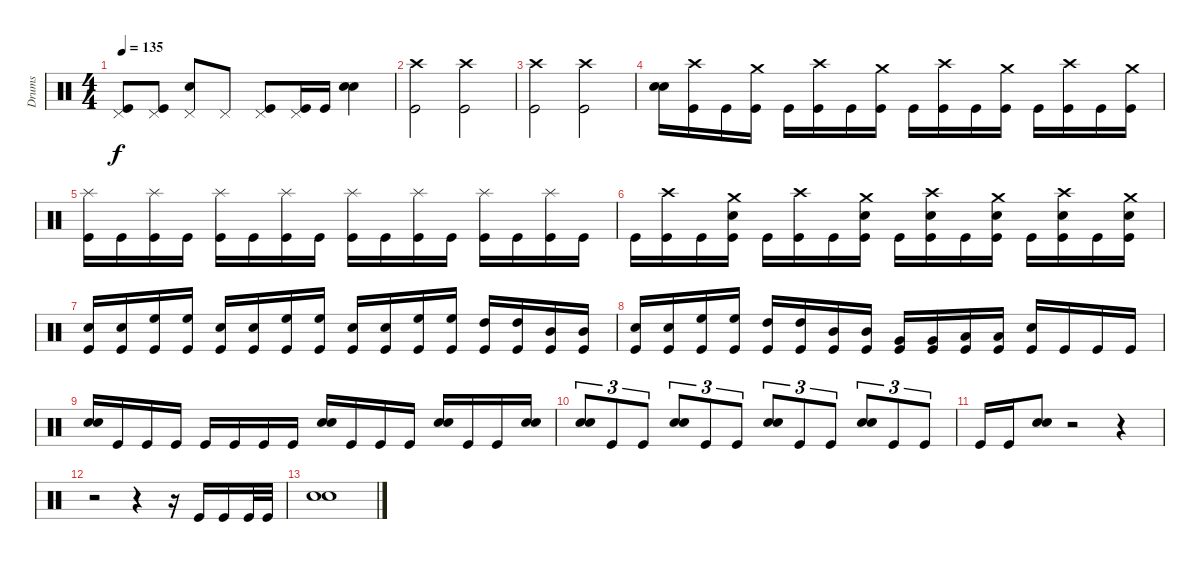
\track ("Drums" "Drums") {instrument percussion}
\staff {score}
\articulation defaults
\ts (4 4)
\tempo 135
\clef neutral
\ks c
("Pedal Hi-Hat (hit)" "Kick (hit)").8{dy f} ("Pedal Hi-Hat (hit)" "Kick (hit)").8 ("Pedal Hi-Hat (hit)" "Snare (hit) 2").8 "Pedal Hi-Hat (hit)".8 ("Pedal Hi-Hat (hit)" "Kick (hit)").8 ("Pedal Hi-Hat (hit)" "Kick (hit)").16 "Kick (hit)".16 ("Snare (hit) 2" "Snare (hit) 2").4 |
("Crash high (hit)" "Kick (hit)").2 ("Crash high (hit)" "Kick (hit)").2 |
("Crash high (hit)" "Kick (hit)").2 ("Crash high (hit)" "Kick (hit)").2 |
("Snare (hit) 2" "Snare (hit) 2").16 ("Crash high (hit)" "Kick (hit)").16 "Kick (hit)".16 ("Crash medium (hit)" "Kick (hit)").16 "Kick (hit)".16 ("Crash high (hit)" "Kick (hit)").16 "Kick (hit)".16 ("Crash medium (hit)" "Kick (hit)").16 "Kick (hit)".16 ("Crash high (hit)" "Kick (hit)").16 "Kick (hit)".16 ("Crash medium (hit)" "Kick (hit)").16 "Kick (hit)".16 ("Crash high (hit)" "Kick (hit)").16 "Kick (hit)".16 ("Crash medium (hit)" "Kick (hit)").16 |
("Splash (hit)" "Kick (hit)").16 "Kick (hit)".16 ("Splash (hit)" "Kick (hit)").16 "Kick (hit)".16 ("Splash (hit)" "Kick (hit)").16 "Kick (hit)".16 ("Splash (hit)" "Kick (hit)").16 "Kick (hit)".16 ("Splash (hit)" "Kick (hit)").16 "Kick (hit)".16 ("Splash (hit)" "Kick (hit)").16 "Kick (hit)".16 ("Splash (hit)" "Kick (hit)").16 "Kick (hit)".16 ("Splash (hit)" "Kick (hit)").16 "Kick (hit)".16 |
"Kick (hit)".16 ("Crash high (hit)" "Kick (hit)").16 "Kick (hit)".16 ("Crash medium (hit)" "Snare (hit) 2" "Kick (hit)").16 "Kick (hit)".16 ("Crash high (hit)" "Kick (hit)").16 "Kick (hit)".16 ("Crash medium (hit)" "Snare (hit) 2" "Kick (hit)").16 "Kick (hit)".16 ("Crash high (hit)" "Snare (hit) 2" "Kick (hit)").16 "Kick (hit)".16 ("Crash medium (hit)" "Snare (hit) 2" "Kick (hit)").16 "Kick (hit)".16 ("Crash high (hit)" "Snare (hit) 2" "Kick (hit)").16 "Kick (hit)".16 ("Crash medium (hit)" "Snare (hit) 2" "Kick (hit)").16 |
("Snare (hit) 2" "Kick (hit)").16 ("Snare (hit) 2" "Kick (hit)").16 ("High Floor Tom (hit)" "Kick (hit)").16 ("High Floor Tom (hit)" "Kick (hit)").16 ("Snare (hit) 2" "Kick (hit)").16 ("Snare (hit) 2" "Kick (hit)").16 ("High Floor Tom (hit)" "Kick (hit)").16 ("High Floor Tom (hit)" "Kick (hit)").16 ("Snare (hit) 2" "Kick (hit)").16 ("Snare (hit) 2" "Kick (hit)").16 ("High Floor Tom (hit)" "Kick (hit)").16 ("High Floor Tom (hit)" "Kick (hit)").16 ("High Tom (hit)" "Kick (hit)").16 ("High Tom (hit)" "Kick (hit)").16 ("Mid Tom (hit)" "Kick (hit)").16 ("Mid Tom (hit)" "Kick (hit)").16 |
("Snare (hit) 2" "Kick (hit)").16 ("Snare (hit) 2" "Kick (hit)").16 ("High Floor Tom (hit)" "Kick (hit)").16 ("High Floor Tom (hit)" "Kick (hit)").16 ("High Tom (hit)" "Kick (hit)").16 ("High Tom (hit)" "Kick (hit)").16 ("Mid Tom (hit)" "Kick (hit)").16 ("Mid Tom (hit)" "Kick (hit)").16 ("Very Low Tom (hit)" "Kick (hit)").16 ("Very Low Tom (hit)" "Kick (hit)").16 ("Low Floor Tom (hit)" "Kick (hit)").16 ("Low Floor Tom (hit)" "Kick (hit)").16 ("Snare (hit) 2" "Kick (hit)").16 "Kick (hit)".16 "Kick (hit)".16 "Kick (hit)".16 |
("Snare (hit) 2" "Snare (hit) 2").16 "Kick (hit)".16 "Kick (hit)".16 "Kick (hit)".16 "Kick (hit)".16 "Kick (hit)".16 "Kick (hit)".16 "Kick (hit)".16 ("Snare (hit) 2" "Snare (hit) 2").16 "Kick (hit)".16 "Kick (hit)".16 "Kick (hit)".16 ("Snare (hit) 2" "Snare (hit) 2").16 "Kick (hit)".16 "Kick (hit)".16 ("Snare (hit) 2" "Snare (hit) 2").16 |
("Snare (hit) 2" "Snare (hit) 2").8{tu (3 2)} "Kick (hit)".8{tu (3 2)} "Kick (hit)".8{tu (3 2)} ("Snare (hit) 2" "Snare (hit) 2").8{tu (3 2)} "Kick (hit)".8{tu (3 2)} "Kick (hit)".8{tu (3 2)} ("Snare (hit) 2" "Snare (hit) 2").8{tu (3 2)} "Kick (hit)".8{tu (3 2)} "Kick (hit)".8{tu (3 2)} ("Snare (hit) 2" "Snare (hit) 2").8{tu (3 2)} "Kick (hit)".8{tu (3 2)} "Kick (hit)".8{tu (3 2)} |
"Kick (hit)".16 "Kick (hit)".16 ("Snare (hit) 2" "Snare (hit) 2").8 r.2 r.4 |
r.2 r.4 r.16 "Kick (hit)".16 "Kick (hit)".16 "Kick (hit)".32 "Kick (hit)".32 |
("Snare (hit) 2" "Snare (hit) 2").1
